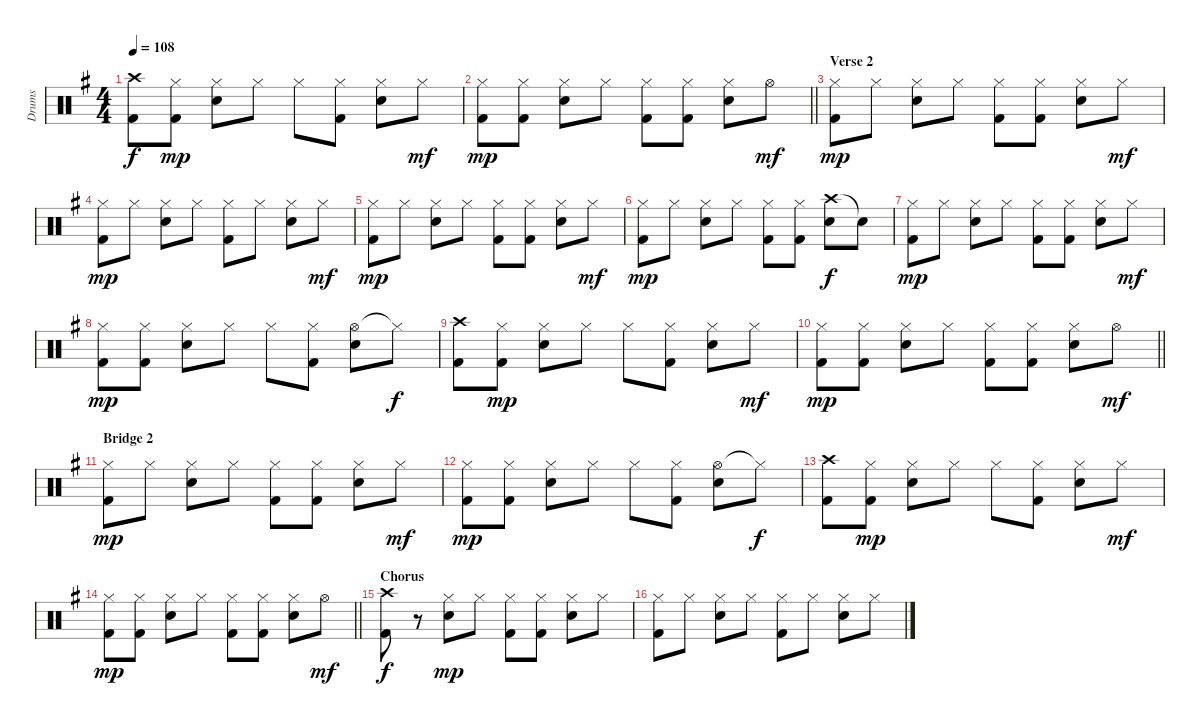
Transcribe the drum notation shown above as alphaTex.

\track ("Drums" "Drums") {instrument percussion}
\staff {score}
\articulation defaults
\ts (4 4)
\tempo 108
\clef neutral
\ks g
("Crash high (hit)" "Kick (hit) 2").8{dy f} ("Hi-Hat (closed)" "Kick (hit) 2").8{dy mp} ("Hi-Hat (closed)" "Snare (hit) 2").8 "Hi-Hat (closed)".8 "Hi-Hat (closed)".8 ("Hi-Hat (closed)" "Kick (hit) 2").8 ("Hi-Hat (closed)" "Snare (hit) 2").8 "Hi-Hat (closed)".8{dy mf} |
\barLineRight lightlight
("Hi-Hat (closed)" "Kick (hit) 2").8{dy mp} ("Hi-Hat (closed)" "Kick (hit) 2").8 ("Hi-Hat (closed)" "Snare (hit) 2").8 "Hi-Hat (closed)".8 ("Hi-Hat (closed)" "Kick (hit) 2").8 ("Hi-Hat (closed)" "Kick (hit) 2").8 ("Hi-Hat (closed)" "Snare (hit) 2").8 "Hi-Hat (open)".8{dy mf} |
\section ("" "Verse 2")
("Hi-Hat (closed)" "Kick (hit) 2").8{dy mp} "Hi-Hat (closed)".8 ("Hi-Hat (closed)" "Snare (hit) 2").8 "Hi-Hat (closed)".8 ("Hi-Hat (closed)" "Kick (hit) 2").8 ("Hi-Hat (closed)" "Kick (hit) 2").8 ("Hi-Hat (closed)" "Snare (hit) 2").8 "Hi-Hat (closed)".8{dy mf} |
("Hi-Hat (closed)" "Kick (hit) 2").8{dy mp} "Hi-Hat (closed)".8 ("Hi-Hat (closed)" "Snare (hit) 2").8 "Hi-Hat (closed)".8 ("Hi-Hat (closed)" "Kick (hit) 2").8 "Hi-Hat (closed)".8 ("Hi-Hat (closed)" "Snare (hit) 2").8 "Hi-Hat (closed)".8{dy mf} |
("Hi-Hat (closed)" "Kick (hit) 2").8{dy mp} "Hi-Hat (closed)".8 ("Hi-Hat (closed)" "Snare (hit) 2").8 "Hi-Hat (closed)".8 ("Hi-Hat (closed)" "Kick (hit) 2").8 ("Hi-Hat (closed)" "Kick (hit) 2").8 ("Hi-Hat (closed)" "Snare (hit) 2").8 "Hi-Hat (closed)".8{dy mf} |
("Hi-Hat (closed)" "Kick (hit) 2").8{dy mp} "Hi-Hat (closed)".8 ("Hi-Hat (closed)" "Snare (hit) 2").8 "Hi-Hat (closed)".8 ("Hi-Hat (closed)" "Kick (hit) 2").8 ("Hi-Hat (closed)" "Kick (hit) 2").8 ("Crash high (hit)" "Snare (hit) 2").8{dy f} "Snare (hit)"{t}.8 |
("Hi-Hat (closed)" "Kick (hit) 2").8{dy mp} "Hi-Hat (closed)".8 ("Hi-Hat (closed)" "Snare (hit) 2").8 "Hi-Hat (closed)".8 ("Hi-Hat (closed)" "Kick (hit) 2").8 ("Hi-Hat (closed)" "Kick (hit) 2").8 ("Hi-Hat (closed)" "Snare (hit) 2").8 "Hi-Hat (closed)".8{dy mf} |
("Hi-Hat (closed)" "Kick (hit) 2").8{dy mp} ("Hi-Hat (closed)" "Kick (hit) 2").8 ("Hi-Hat (closed)" "Snare (hit) 2").8 "Hi-Hat (closed)".8 "Hi-Hat (closed)".8 ("Hi-Hat (closed)" "Kick (hit) 2").8 ("Hi-Hat (open)" "Snare (hit) 2").8 "Hi-Hat (closed)"{t}.8{dy f} |
("Crash high (hit)" "Kick (hit) 2").8 ("Hi-Hat (closed)" "Kick (hit) 2").8{dy mp} ("Hi-Hat (closed)" "Snare (hit) 2").8 "Hi-Hat (closed)".8 "Hi-Hat (closed)".8 ("Hi-Hat (closed)" "Kick (hit) 2").8 ("Hi-Hat (closed)" "Snare (hit) 2").8 "Hi-Hat (closed)".8{dy mf} |
\barLineRight lightlight
("Hi-Hat (closed)" "Kick (hit) 2").8{dy mp} ("Hi-Hat (closed)" "Kick (hit) 2").8 ("Hi-Hat (closed)" "Snare (hit) 2").8 "Hi-Hat (closed)".8 ("Hi-Hat (closed)" "Kick (hit) 2").8 ("Hi-Hat (closed)" "Kick (hit) 2").8 ("Hi-Hat (closed)" "Snare (hit) 2").8 "Hi-Hat (open)".8{dy mf} |
\section ("" "Bridge 2")
("Hi-Hat (closed)" "Kick (hit) 2").8{dy mp} "Hi-Hat (closed)".8 ("Hi-Hat (closed)" "Snare (hit) 2").8 "Hi-Hat (closed)".8 ("Hi-Hat (closed)" "Kick (hit) 2").8 ("Hi-Hat (closed)" "Kick (hit) 2").8 ("Hi-Hat (closed)" "Snare (hit) 2").8 "Hi-Hat (closed)".8{dy mf} |
("Hi-Hat (closed)" "Kick (hit) 2").8{dy mp} ("Hi-Hat (closed)" "Kick (hit) 2").8 ("Hi-Hat (closed)" "Snare (hit) 2").8 "Hi-Hat (closed)".8 "Hi-Hat (closed)".8 ("Hi-Hat (closed)" "Kick (hit) 2").8 ("Hi-Hat (open)" "Snare (hit) 2").8 "Hi-Hat (closed)"{t}.8{dy f} |
("Crash high (hit)" "Kick (hit) 2").8 ("Hi-Hat (closed)" "Kick (hit) 2").8{dy mp} ("Hi-Hat (closed)" "Snare (hit) 2").8 "Hi-Hat (closed)".8 "Hi-Hat (closed)".8 ("Hi-Hat (closed)" "Kick (hit) 2").8 ("Hi-Hat (closed)" "Snare (hit) 2").8 "Hi-Hat (closed)".8{dy mf} |
\barLineRight lightlight
("Hi-Hat (closed)" "Kick (hit) 2").8{dy mp} ("Hi-Hat (closed)" "Kick (hit) 2").8 ("Hi-Hat (closed)" "Snare (hit) 2").8 "Hi-Hat (closed)".8 ("Hi-Hat (closed)" "Kick (hit) 2").8 ("Hi-Hat (closed)" "Kick (hit) 2").8 ("Hi-Hat (closed)" "Snare (hit) 2").8 "Hi-Hat (open)".8{dy mf} |
\section ("" "Chorus")
("Crash high (hit)" "Kick (hit) 2").8{dy f} r.8 ("Hi-Hat (closed)" "Snare (hit) 2").8{dy mp} "Hi-Hat (closed)".8 ("Hi-Hat (closed)" "Kick (hit) 2").8 ("Hi-Hat (closed)" "Kick (hit) 2").8 ("Hi-Hat (closed)" "Snare (hit) 2").8 "Hi-Hat (closed)".8 |
("Hi-Hat (closed)" "Kick (hit) 2").8 "Hi-Hat (closed)".8 ("Hi-Hat (closed)" "Snare (hit) 2").8 "Hi-Hat (closed)".8 ("Hi-Hat (closed)" "Kick (hit) 2").8 "Hi-Hat (closed)".8 ("Hi-Hat (closed)" "Snare (hit) 2").8 "Hi-Hat (closed)".8
